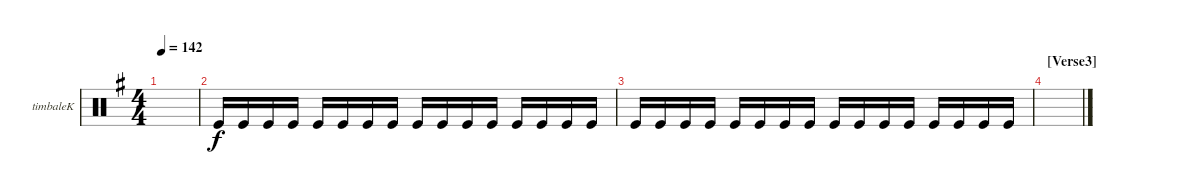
\bracketExtendMode groupsimilarinstruments
\firstSystemTrackNameOrientation horizontal
\otherSystemsTrackNameOrientation horizontal
\track ("Timbale" "timbaleK") {instrument percussion}
\staff {score}
\articulation defaults
\ts (4 4)
\tempo 142
\clef neutral
\ks eminor
|
"Kick (hit)".16 "Kick (hit)".16 "Kick (hit)".16 "Kick (hit)".16 "Kick (hit)".16 "Kick (hit)".16 "Kick (hit)".16 "Kick (hit)".16 "Kick (hit)".16 "Kick (hit)".16 "Kick (hit)".16 "Kick (hit)".16 "Kick (hit)".16 "Kick (hit)".16 "Kick (hit)".16 "Kick (hit)".16 |
"Kick (hit)".16 "Kick (hit)".16 "Kick (hit)".16 "Kick (hit)".16 "Kick (hit)".16 "Kick (hit)".16 "Kick (hit)".16 "Kick (hit)".16 "Kick (hit)".16 "Kick (hit)".16 "Kick (hit)".16 "Kick (hit)".16 "Kick (hit)".16 "Kick (hit)".16 "Kick (hit)".16 "Kick (hit)".16 |
\section ("" "[Verse3]")
